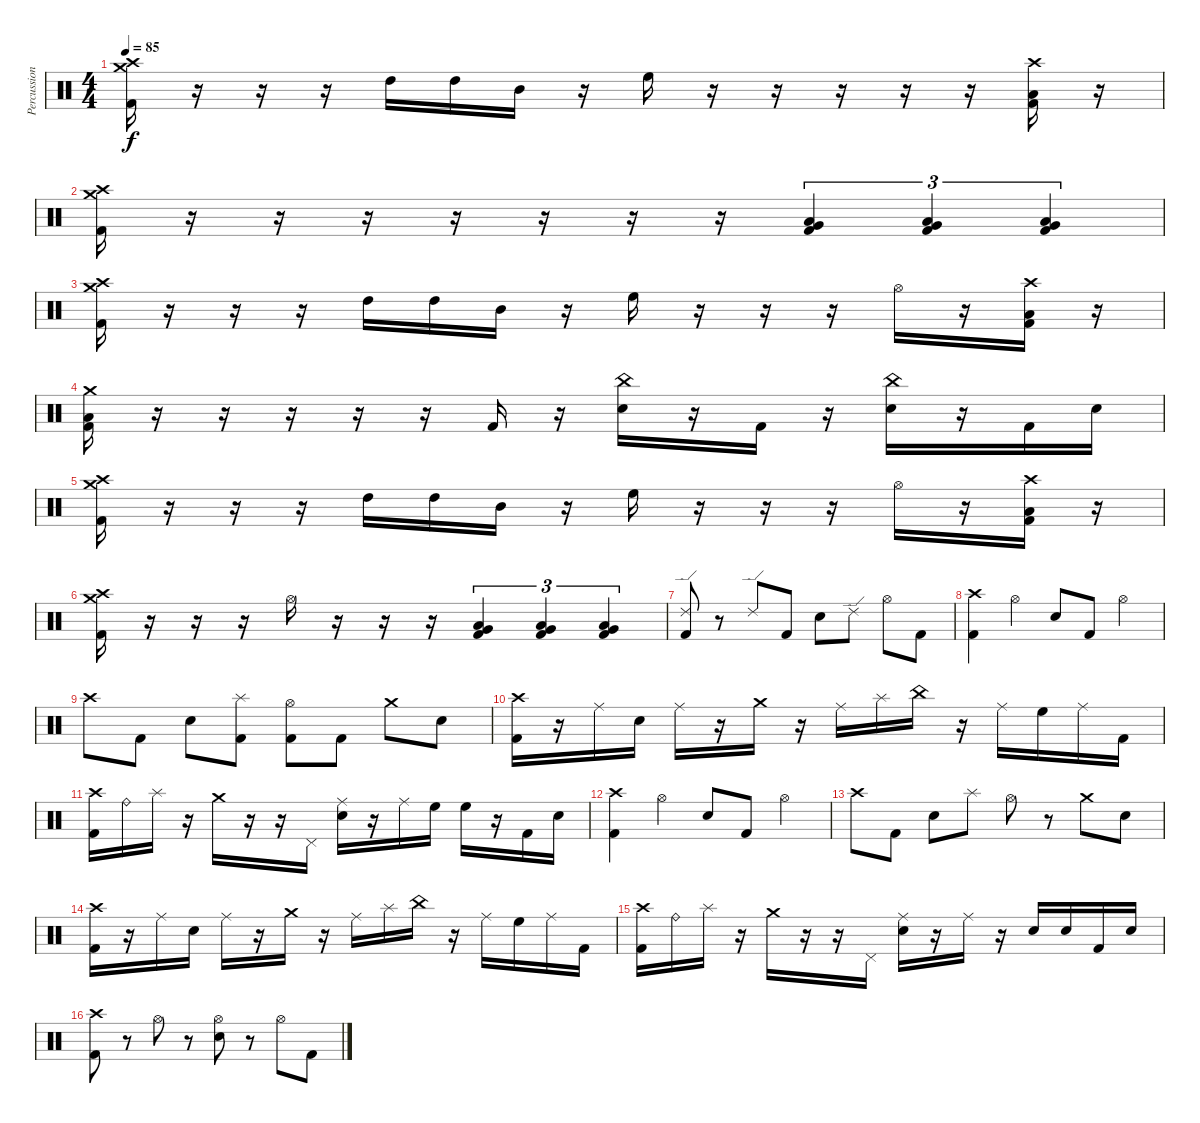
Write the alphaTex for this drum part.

\track ("Percussion" "Percussion") {instrument percussion}
\staff {score}
\articulation defaults
\ts (4 4)
\tempo 85
\clef neutral
\ks c
("Crash medium (hit)" "Crash high (hit)" "Kick (hit) 2").16{dy f} r.16 r.16 r.16 "High Tom (hit)".16 "High Tom (hit)".16 "Mid Tom (hit)".16 r.16 "High Floor Tom (hit)".16 r.16 r.16 r.16 r.16 r.16 ("Crash high (hit)" "Low Floor Tom (hit)" "Kick (hit) 2").16 r.16 |
("Crash medium (hit)" "Crash high (hit)" "Kick (hit) 2").16 r.16 r.16 r.16 r.16 r.16 r.16 r.16 ("Very Low Tom (hit)" "Low Floor Tom (hit)" "Kick (hit) 2").4{tu (3 2)} ("Very Low Tom (hit)" "Low Floor Tom (hit)" "Kick (hit) 2").4{tu (3 2)} ("Very Low Tom (hit)" "Low Floor Tom (hit)" "Kick (hit) 2").4{tu (3 2)} |
("Crash medium (hit)" "Crash high (hit)" "Kick (hit) 2").16 r.16 r.16 r.16 "High Tom (hit)".16 "High Tom (hit)".16 "Mid Tom (hit)".16 r.16 "High Floor Tom (hit)".16 r.16 r.16 r.16 "Hi-Hat (open)".16 r.16 ("Crash high (hit)" "Low Floor Tom (hit)" "Kick (hit) 2").16 r.16 |
("Crash medium (hit)" "Low Floor Tom (hit)" "Kick (hit) 2").16 r.16 r.16 r.16 r.16 r.16 "Kick (hit) 2".16 r.16 ("China (hit)" "Electric Snare (hit)").16 r.16 "Kick (hit) 2".16 r.16 ("China (hit)" "Electric Snare (hit)").16 r.16 "Kick (hit) 2".16 "Electric Snare (hit)".16 |
("Crash medium (hit)" "Crash high (hit)" "Kick (hit) 2").16 r.16 r.16 r.16 "High Tom (hit)".16 "High Tom (hit)".16 "Mid Tom (hit)".16 r.16 "High Floor Tom (hit)".16 r.16 r.16 r.16 "Hi-Hat (open)".16 r.16 ("Crash high (hit)" "Low Floor Tom (hit)" "Kick (hit) 2").16 r.16 |
("Crash medium (hit)" "Crash high (hit)" "Kick (hit) 2").16 r.16 r.16 r.16 "Hi-Hat (open)".16 r.16 r.16 r.16 ("Very Low Tom (hit)" "Low Floor Tom (hit)" "Kick (hit) 2").4{tu (3 2)} ("Very Low Tom (hit)" "Low Floor Tom (hit)" "Kick (hit) 2").4{tu (3 2)} ("Very Low Tom (hit)" "Low Floor Tom (hit)" "Kick (hit) 2").4{tu (3 2)} |
("Ride (edge) 2" "Kick (hit) 2").8 r.8 "Ride (edge) 2".8 "Kick (hit) 2".8 "Electric Snare (hit)".8 "Ride (edge) 2".8 "Hi-Hat (open)".8 "Kick (hit) 2".8 |
("Crash high (hit)" "Kick (hit) 2").4 "Hi-Hat (open)".4 "Electric Snare (hit)".8 "Kick (hit) 2".8 "Hi-Hat (open)".4 |
"Crash high (hit)".8 "Kick (hit) 2".8 "Electric Snare (hit)".8 ("Splash (hit)" "Kick (hit) 2").8 ("Hi-Hat (open)" "Kick (hit) 2").8 "Kick (hit) 2".8 "Crash medium (hit)".8 "Electric Snare (hit)".8 |
("Crash high (hit)" "Kick (hit) 2").16 r.16 "Ride (middle)".16 "Electric Snare (hit)".16 "Ride (middle)".16 r.16 "Crash medium (hit)".16 r.16 "Ride (middle)".16 "Splash (hit)".16 "China (hit)".16 r.16 "Ride (middle)".16 "High Floor Tom (hit)".16 "Ride (middle)".16 "Kick (hit) 2".16 |
("Crash high (hit)" "Kick (hit) 2").16 "Ride (bell)".16 "Splash (hit)".16 r.16 "Crash medium (hit)".16 r.16 r.16 "Pedal Hi-Hat (hit)".16 ("Ride (middle)" "Electric Snare (hit)").16 r.16 "Ride (middle)".16 "High Floor Tom (hit)".16 "High Floor Tom (hit)".16 r.16 "Kick (hit) 2".16 "Electric Snare (hit)".16 |
("Crash high (hit)" "Kick (hit) 2").4 "Hi-Hat (open)".4 "Electric Snare (hit)".8 "Kick (hit) 2".8 "Hi-Hat (open)".4 |
"Crash high (hit)".8 "Kick (hit) 2".8 "Electric Snare (hit)".8 "Splash (hit)".8 "Hi-Hat (open)".8 r.8 "Crash medium (hit)".8 "Electric Snare (hit)".8 |
("Crash high (hit)" "Kick (hit) 2").16 r.16 "Ride (middle)".16 "Electric Snare (hit)".16 "Ride (middle)".16 r.16 "Crash medium (hit)".16 r.16 "Ride (middle)".16 "Splash (hit)".16 "China (hit)".16 r.16 "Ride (middle)".16 "High Floor Tom (hit)".16 "Ride (middle)".16 "Kick (hit) 2".16 |
("Crash high (hit)" "Kick (hit) 2").16 "Ride (bell)".16 "Splash (hit)".16 r.16 "Crash medium (hit)".16 r.16 r.16 "Pedal Hi-Hat (hit)".16 ("Ride (middle)" "Electric Snare (hit)").16 r.16 "Ride (middle)".16 r.16 "Electric Snare (hit)".16 "Electric Snare (hit)".16 "Kick (hit) 2".16 "Electric Snare (hit)".16 |
("Crash high (hit)" "Kick (hit) 2").8 r.8 "Hi-Hat (open)".8 r.8 ("Hi-Hat (open)" "Electric Snare (hit)").8 r.8 "Hi-Hat (open)".8 "Kick (hit) 2".8
